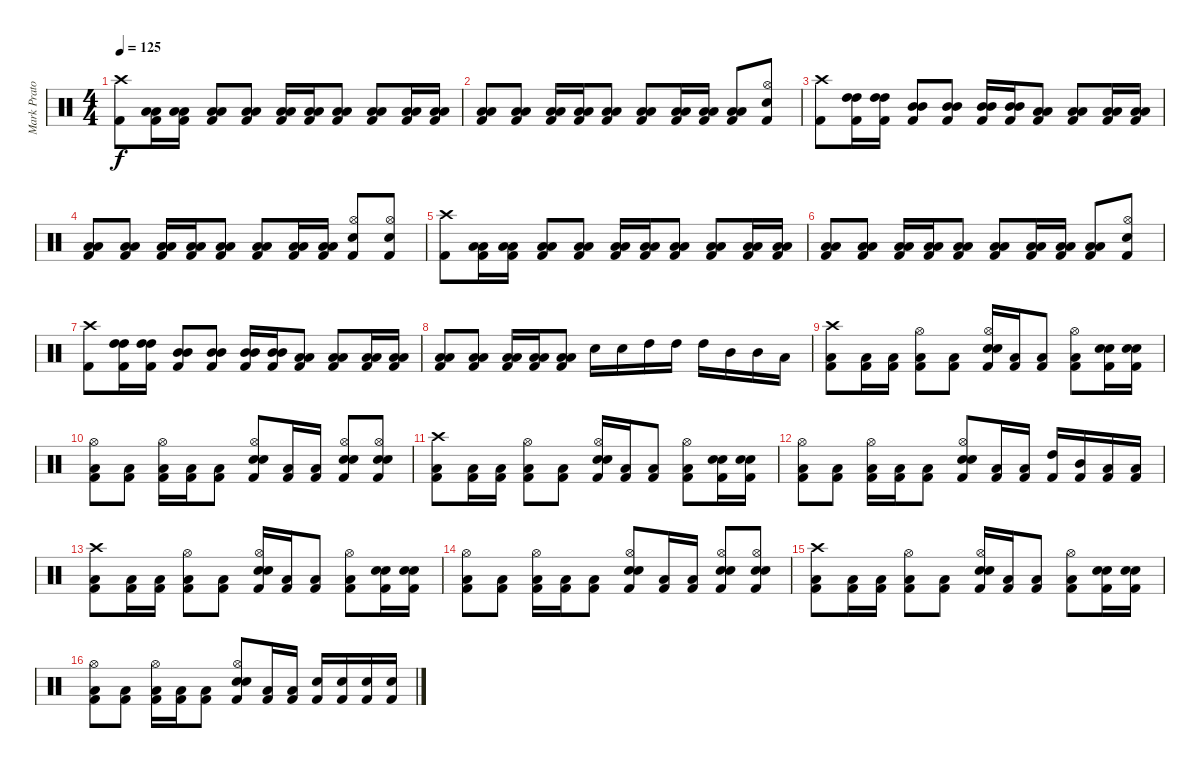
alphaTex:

\track ("Mark Prator" "Mark Prato") {instrument percussion}
\staff {score}
\articulation defaults
\ts (4 4)
\tempo 125
\clef neutral
\ks c
("Crash high (hit)" "Kick (hit) 2").8{dy f volume 13} ("Low Tom (hit)" "Low Tom (hit)" "Kick (hit) 2").16 ("Low Tom (hit)" "Low Tom (hit)" "Kick (hit) 2").16 ("Low Floor Tom (hit)" "Low Floor Tom (hit)" "Kick (hit) 2").8 ("Low Floor Tom (hit)" "Low Floor Tom (hit)" "Kick (hit) 2").8 ("Low Tom (hit)" "Low Tom (hit)" "Kick (hit) 2").16 ("Low Tom (hit)" "Low Tom (hit)" "Kick (hit) 2").16 ("Low Floor Tom (hit)" "Low Floor Tom (hit)" "Kick (hit) 2").8 ("Low Floor Tom (hit)" "Low Floor Tom (hit)" "Kick (hit) 2").8 ("Low Tom (hit)" "Low Tom (hit)" "Kick (hit) 2").16 ("Low Tom (hit)" "Low Tom (hit)" "Kick (hit) 2").16 |
("Low Floor Tom (hit)" "Low Floor Tom (hit)" "Kick (hit) 2").8 ("Low Floor Tom (hit)" "Low Floor Tom (hit)" "Kick (hit) 2").8 ("Low Tom (hit)" "Low Tom (hit)" "Kick (hit) 2").16 ("Low Tom (hit)" "Low Tom (hit)" "Kick (hit) 2").16 ("Low Floor Tom (hit)" "Low Floor Tom (hit)" "Kick (hit) 2").8 ("Low Floor Tom (hit)" "Low Floor Tom (hit)" "Kick (hit) 2").8 ("Low Tom (hit)" "Low Tom (hit)" "Kick (hit) 2").16 ("Low Tom (hit)" "Low Tom (hit)" "Kick (hit) 2").16 ("Low Tom (hit)" "Low Tom (hit)" "Kick (hit) 2").8 ("Hi-Hat (open)" "Electric Snare (hit)" "Kick (hit) 2").8 |
("Crash high (hit)" "Kick (hit) 2").8 ("High Tom (hit)" "High Tom (hit)" "Kick (hit) 2").16 ("High Tom (hit)" "High Tom (hit)" "Kick (hit) 2").16 ("Mid Tom (hit)" "Mid Tom (hit)" "Kick (hit) 2").8 ("Mid Tom (hit)" "Mid Tom (hit)" "Kick (hit) 2").8 ("Mid Tom (hit)" "Mid Tom (hit)" "Kick (hit) 2").16 ("Mid Tom (hit)" "Mid Tom (hit)" "Kick (hit) 2").16 ("Low Tom (hit)" "Low Tom (hit)" "Kick (hit) 2").8 ("Low Tom (hit)" "Low Tom (hit)" "Kick (hit) 2").8 ("Low Floor Tom (hit)" "Low Floor Tom (hit)" "Kick (hit) 2").16 ("Low Floor Tom (hit)" "Low Floor Tom (hit)" "Kick (hit) 2").16 |
("Low Floor Tom (hit)" "Low Floor Tom (hit)" "Kick (hit) 2").8 ("Low Floor Tom (hit)" "Low Floor Tom (hit)" "Kick (hit) 2").8 ("Low Tom (hit)" "Low Tom (hit)" "Kick (hit) 2").16 ("Low Tom (hit)" "Low Tom (hit)" "Kick (hit) 2").16 ("Low Floor Tom (hit)" "Low Floor Tom (hit)" "Kick (hit) 2").8 ("Low Floor Tom (hit)" "Low Floor Tom (hit)" "Kick (hit) 2").8 ("Low Tom (hit)" "Low Tom (hit)" "Kick (hit) 2").16 ("Low Tom (hit)" "Low Tom (hit)" "Kick (hit) 2").16 ("Hi-Hat (open)" "Electric Snare (hit)" "Kick (hit) 2").8 ("Hi-Hat (open)" "Electric Snare (hit)" "Kick (hit) 2").8 |
("Crash high (hit)" "Kick (hit) 2").8 ("Low Tom (hit)" "Low Tom (hit)" "Kick (hit) 2").16 ("Low Tom (hit)" "Low Tom (hit)" "Kick (hit) 2").16 ("Low Floor Tom (hit)" "Low Floor Tom (hit)" "Kick (hit) 2").8 ("Low Floor Tom (hit)" "Low Floor Tom (hit)" "Kick (hit) 2").8 ("Low Tom (hit)" "Low Tom (hit)" "Kick (hit) 2").16 ("Low Tom (hit)" "Low Tom (hit)" "Kick (hit) 2").16 ("Low Floor Tom (hit)" "Low Floor Tom (hit)" "Kick (hit) 2").8 ("Low Floor Tom (hit)" "Low Floor Tom (hit)" "Kick (hit) 2").8 ("Low Tom (hit)" "Low Tom (hit)" "Kick (hit) 2").16 ("Low Tom (hit)" "Low Tom (hit)" "Kick (hit) 2").16 |
("Low Floor Tom (hit)" "Low Floor Tom (hit)" "Kick (hit) 2").8 ("Low Floor Tom (hit)" "Low Floor Tom (hit)" "Kick (hit) 2").8 ("Low Tom (hit)" "Low Tom (hit)" "Kick (hit) 2").16 ("Low Tom (hit)" "Low Tom (hit)" "Kick (hit) 2").16 ("Low Floor Tom (hit)" "Low Floor Tom (hit)" "Kick (hit) 2").8 ("Low Floor Tom (hit)" "Low Floor Tom (hit)" "Kick (hit) 2").8 ("Low Tom (hit)" "Low Tom (hit)" "Kick (hit) 2").16 ("Low Tom (hit)" "Low Tom (hit)" "Kick (hit) 2").16 ("Low Tom (hit)" "Low Tom (hit)" "Kick (hit) 2").8 ("Hi-Hat (open)" "Electric Snare (hit)" "Kick (hit) 2").8 |
("Crash high (hit)" "Kick (hit) 2").8 ("High Tom (hit)" "High Tom (hit)" "Kick (hit) 2").16 ("High Tom (hit)" "High Tom (hit)" "Kick (hit) 2").16 ("Mid Tom (hit)" "Mid Tom (hit)" "Kick (hit) 2").8 ("Mid Tom (hit)" "Mid Tom (hit)" "Kick (hit) 2").8 ("Mid Tom (hit)" "Mid Tom (hit)" "Kick (hit) 2").16 ("Mid Tom (hit)" "Mid Tom (hit)" "Kick (hit) 2").16 ("Low Tom (hit)" "Low Tom (hit)" "Kick (hit) 2").8 ("Low Tom (hit)" "Low Tom (hit)" "Kick (hit) 2").8 ("Low Floor Tom (hit)" "Low Floor Tom (hit)" "Kick (hit) 2").16 ("Low Floor Tom (hit)" "Low Floor Tom (hit)" "Kick (hit) 2").16 |
("Low Floor Tom (hit)" "Low Floor Tom (hit)" "Kick (hit) 2").8 ("Low Floor Tom (hit)" "Low Floor Tom (hit)" "Kick (hit) 2").8 ("Low Tom (hit)" "Low Tom (hit)" "Kick (hit) 2").16 ("Low Tom (hit)" "Low Tom (hit)" "Kick (hit) 2").16 ("Low Floor Tom (hit)" "Low Floor Tom (hit)" "Kick (hit) 2").8 "Electric Snare (hit)".16 "Electric Snare (hit)".16 "High Tom (hit)".16 "High Tom (hit)".16 "High Tom (hit)".16 "Mid Tom (hit)".16 "Mid Tom (hit)".16 "Low Tom (hit)".16 |
("Crash high (hit)" "Low Tom (hit)" "Kick (hit) 2").8 ("Low Tom (hit)" "Kick (hit) 2").16 ("Low Tom (hit)" "Kick (hit) 2").16 ("Hi-Hat (open)" "Low Tom (hit)" "Kick (hit) 2").8 ("Low Tom (hit)" "Kick (hit) 2").8 ("Hi-Hat (open)" "Electric Snare (hit)" "Electric Snare (hit)" "Kick (hit) 2").16 ("Low Tom (hit)" "Kick (hit) 2").16 ("Low Tom (hit)" "Kick (hit) 2").8 ("Hi-Hat (open)" "Low Tom (hit)" "Kick (hit) 2").8 ("Electric Snare (hit)" "Electric Snare (hit)" "Kick (hit) 2").16 ("Electric Snare (hit)" "Electric Snare (hit)" "Kick (hit) 2").16 |
("Hi-Hat (open)" "Low Tom (hit)" "Kick (hit) 2").8 ("Low Tom (hit)" "Kick (hit) 2").8 ("Hi-Hat (open)" "Low Tom (hit)" "Kick (hit) 2").16 ("Low Tom (hit)" "Kick (hit) 2").16 ("Low Tom (hit)" "Kick (hit) 2").8 ("Hi-Hat (open)" "Electric Snare (hit)" "Electric Snare (hit)" "Kick (hit) 2").8 ("Low Tom (hit)" "Kick (hit) 2").16 ("Low Tom (hit)" "Kick (hit) 2").16 ("Hi-Hat (open)" "Electric Snare (hit)" "Electric Snare (hit)" "Kick (hit) 2").8 ("Hi-Hat (open)" "Electric Snare (hit)" "Electric Snare (hit)" "Kick (hit) 2").8 |
("Crash high (hit)" "Low Tom (hit)" "Kick (hit) 2").8 ("Low Tom (hit)" "Kick (hit) 2").16 ("Low Tom (hit)" "Kick (hit) 2").16 ("Hi-Hat (open)" "Low Tom (hit)" "Kick (hit) 2").8 ("Low Tom (hit)" "Kick (hit) 2").8 ("Hi-Hat (open)" "Electric Snare (hit)" "Electric Snare (hit)" "Kick (hit) 2").16 ("Low Tom (hit)" "Kick (hit) 2").16 ("Low Tom (hit)" "Kick (hit) 2").8 ("Hi-Hat (open)" "Low Tom (hit)" "Kick (hit) 2").8 ("Electric Snare (hit)" "Electric Snare (hit)" "Kick (hit) 2").16 ("Electric Snare (hit)" "Electric Snare (hit)" "Kick (hit) 2").16 |
("Hi-Hat (open)" "Low Tom (hit)" "Kick (hit) 2").8 ("Low Tom (hit)" "Kick (hit) 2").8 ("Hi-Hat (open)" "Low Tom (hit)" "Kick (hit) 2").16 ("Low Tom (hit)" "Kick (hit) 2").16 ("Low Tom (hit)" "Kick (hit) 2").8 ("Hi-Hat (open)" "Electric Snare (hit)" "Electric Snare (hit)" "Kick (hit) 2").8 ("Low Tom (hit)" "Kick (hit) 2").16 ("Low Tom (hit)" "Kick (hit) 2").16 ("High Tom (hit)" "Kick (hit) 2").16 ("Mid Tom (hit)" "Kick (hit) 2").16 ("Low Tom (hit)" "Kick (hit) 2").16 ("Low Floor Tom (hit)" "Kick (hit) 2").16 |
("Crash high (hit)" "Low Tom (hit)" "Kick (hit) 2").8 ("Low Tom (hit)" "Kick (hit) 2").16 ("Low Tom (hit)" "Kick (hit) 2").16 ("Hi-Hat (open)" "Low Tom (hit)" "Kick (hit) 2").8 ("Low Tom (hit)" "Kick (hit) 2").8 ("Hi-Hat (open)" "Electric Snare (hit)" "Electric Snare (hit)" "Kick (hit) 2").16 ("Low Tom (hit)" "Kick (hit) 2").16 ("Low Tom (hit)" "Kick (hit) 2").8 ("Hi-Hat (open)" "Low Tom (hit)" "Kick (hit) 2").8 ("Electric Snare (hit)" "Electric Snare (hit)" "Kick (hit) 2").16 ("Electric Snare (hit)" "Electric Snare (hit)" "Kick (hit) 2").16 |
("Hi-Hat (open)" "Low Tom (hit)" "Kick (hit) 2").8 ("Low Tom (hit)" "Kick (hit) 2").8 ("Hi-Hat (open)" "Low Tom (hit)" "Kick (hit) 2").16 ("Low Tom (hit)" "Kick (hit) 2").16 ("Low Tom (hit)" "Kick (hit) 2").8 ("Hi-Hat (open)" "Electric Snare (hit)" "Electric Snare (hit)" "Kick (hit) 2").8 ("Low Tom (hit)" "Kick (hit) 2").16 ("Low Tom (hit)" "Kick (hit) 2").16 ("Hi-Hat (open)" "Electric Snare (hit)" "Electric Snare (hit)" "Kick (hit) 2").8 ("Hi-Hat (open)" "Electric Snare (hit)" "Electric Snare (hit)" "Kick (hit) 2").8 |
("Crash high (hit)" "Low Tom (hit)" "Kick (hit) 2").8 ("Low Tom (hit)" "Kick (hit) 2").16 ("Low Tom (hit)" "Kick (hit) 2").16 ("Hi-Hat (open)" "Low Tom (hit)" "Kick (hit) 2").8 ("Low Tom (hit)" "Kick (hit) 2").8 ("Hi-Hat (open)" "Electric Snare (hit)" "Electric Snare (hit)" "Kick (hit) 2").16 ("Low Tom (hit)" "Kick (hit) 2").16 ("Low Tom (hit)" "Kick (hit) 2").8 ("Hi-Hat (open)" "Low Tom (hit)" "Kick (hit) 2").8 ("Electric Snare (hit)" "Electric Snare (hit)" "Kick (hit) 2").16 ("Electric Snare (hit)" "Electric Snare (hit)" "Kick (hit) 2").16 |
("Hi-Hat (open)" "Low Tom (hit)" "Kick (hit) 2").8 ("Low Tom (hit)" "Kick (hit) 2").8 ("Hi-Hat (open)" "Low Tom (hit)" "Kick (hit) 2").16 ("Low Tom (hit)" "Kick (hit) 2").16 ("Low Tom (hit)" "Kick (hit) 2").8 ("Hi-Hat (open)" "Electric Snare (hit)" "Electric Snare (hit)" "Kick (hit) 2").8 ("Low Tom (hit)" "Kick (hit) 2").16 ("Low Tom (hit)" "Kick (hit) 2").16 ("Electric Snare (hit)" "Kick (hit) 2").16 ("Electric Snare (hit)" "Kick (hit) 2").16 ("Electric Snare (hit)" "Kick (hit) 2").16 ("Electric Snare (hit)" "Kick (hit) 2").16
